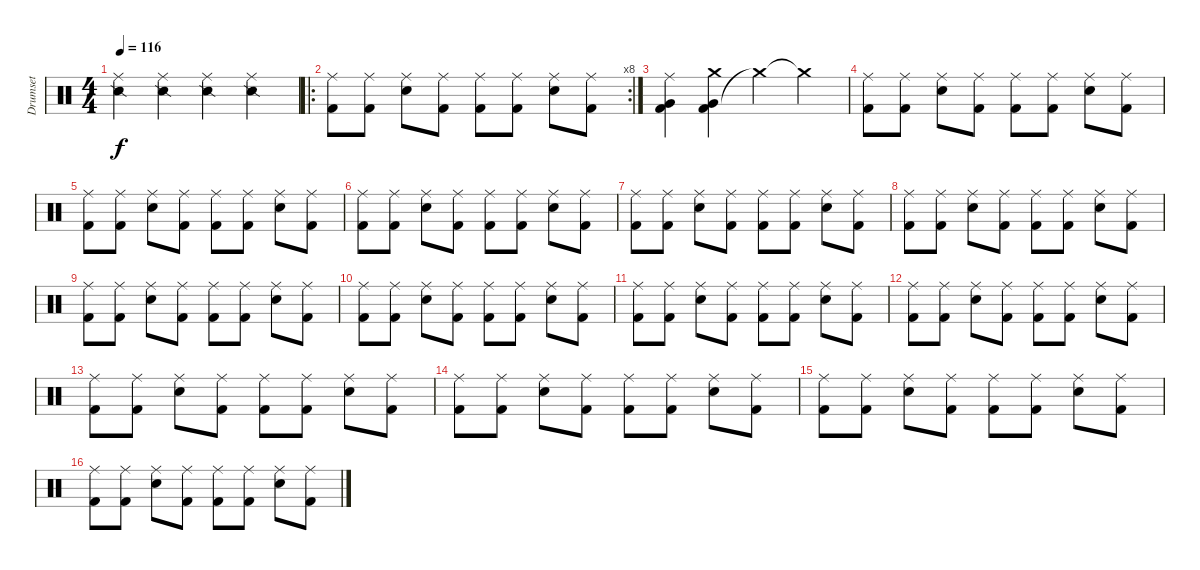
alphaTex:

\track ("Drumset" "Drumset") {instrument percussion}
\staff {score}
\articulation defaults
\ts (4 4)
\tempo 116
\clef neutral
\ks c
("Snare (side stick) 2" "Ride (middle)").4{dy f} ("Snare (side stick) 2" "Ride (middle)").4 ("Snare (side stick) 2" "Ride (middle)").4 ("Snare (side stick) 2" "Ride (middle)").4 |
\ro
\rc 8
("Kick (hit) 2" "Ride (middle)").8 ("Kick (hit) 2" "Ride (middle)").8 ("Electric Snare (hit)" "Ride (middle)").8 ("Kick (hit) 2" "Ride (middle)").8 ("Kick (hit) 2" "Ride (middle)").8 ("Kick (hit) 2" "Ride (middle)").8 ("Electric Snare (hit)" "Ride (middle)").8 ("Kick (hit) 2" "Ride (middle)").8 |
("Kick (hit) 2" "Very Low Tom (hit)" "Ride (middle)").4 ("Kick (hit) 2" "Very Low Tom (hit)" "Crash medium (hit)").4 "Crash medium (hit)"{t}.4 "Crash medium (hit)"{t}.4 |
("Kick (hit) 2" "Ride (middle)").8 ("Kick (hit) 2" "Ride (middle)").8 ("Electric Snare (hit)" "Ride (middle)").8 ("Kick (hit) 2" "Ride (middle)").8 ("Kick (hit) 2" "Ride (middle)").8 ("Kick (hit) 2" "Ride (middle)").8 ("Electric Snare (hit)" "Ride (middle)").8 ("Kick (hit) 2" "Ride (middle)").8 |
("Kick (hit) 2" "Ride (middle)").8 ("Kick (hit) 2" "Ride (middle)").8 ("Electric Snare (hit)" "Ride (middle)").8 ("Kick (hit) 2" "Ride (middle)").8 ("Kick (hit) 2" "Ride (middle)").8 ("Kick (hit) 2" "Ride (middle)").8 ("Electric Snare (hit)" "Ride (middle)").8 ("Kick (hit) 2" "Ride (middle)").8 |
("Kick (hit) 2" "Ride (middle)").8 ("Kick (hit) 2" "Ride (middle)").8 ("Electric Snare (hit)" "Ride (middle)").8 ("Kick (hit) 2" "Ride (middle)").8 ("Kick (hit) 2" "Ride (middle)").8 ("Kick (hit) 2" "Ride (middle)").8 ("Electric Snare (hit)" "Ride (middle)").8 ("Kick (hit) 2" "Ride (middle)").8 |
("Kick (hit) 2" "Ride (middle)").8 ("Kick (hit) 2" "Ride (middle)").8 ("Electric Snare (hit)" "Ride (middle)").8 ("Kick (hit) 2" "Ride (middle)").8 ("Kick (hit) 2" "Ride (middle)").8 ("Kick (hit) 2" "Ride (middle)").8 ("Electric Snare (hit)" "Ride (middle)").8 ("Kick (hit) 2" "Ride (middle)").8 |
("Kick (hit) 2" "Ride (middle)").8 ("Kick (hit) 2" "Ride (middle)").8 ("Electric Snare (hit)" "Ride (middle)").8 ("Kick (hit) 2" "Ride (middle)").8 ("Kick (hit) 2" "Ride (middle)").8 ("Kick (hit) 2" "Ride (middle)").8 ("Electric Snare (hit)" "Ride (middle)").8 ("Kick (hit) 2" "Ride (middle)").8 |
("Kick (hit) 2" "Ride (middle)").8 ("Kick (hit) 2" "Ride (middle)").8 ("Electric Snare (hit)" "Ride (middle)").8 ("Kick (hit) 2" "Ride (middle)").8 ("Kick (hit) 2" "Ride (middle)").8 ("Kick (hit) 2" "Ride (middle)").8 ("Electric Snare (hit)" "Ride (middle)").8 ("Kick (hit) 2" "Ride (middle)").8 |
("Kick (hit) 2" "Ride (middle)").8 ("Kick (hit) 2" "Ride (middle)").8 ("Electric Snare (hit)" "Ride (middle)").8 ("Kick (hit) 2" "Ride (middle)").8 ("Kick (hit) 2" "Ride (middle)").8 ("Kick (hit) 2" "Ride (middle)").8 ("Electric Snare (hit)" "Ride (middle)").8 ("Kick (hit) 2" "Ride (middle)").8 |
("Kick (hit) 2" "Ride (middle)").8 ("Kick (hit) 2" "Ride (middle)").8 ("Electric Snare (hit)" "Ride (middle)").8 ("Kick (hit) 2" "Ride (middle)").8 ("Kick (hit) 2" "Ride (middle)").8 ("Kick (hit) 2" "Ride (middle)").8 ("Electric Snare (hit)" "Ride (middle)").8 ("Kick (hit) 2" "Ride (middle)").8 |
("Kick (hit) 2" "Ride (middle)").8 ("Kick (hit) 2" "Ride (middle)").8 ("Electric Snare (hit)" "Ride (middle)").8 ("Kick (hit) 2" "Ride (middle)").8 ("Kick (hit) 2" "Ride (middle)").8 ("Kick (hit) 2" "Ride (middle)").8 ("Electric Snare (hit)" "Ride (middle)").8 ("Kick (hit) 2" "Ride (middle)").8 |
("Kick (hit) 2" "Ride (middle)").8 ("Kick (hit) 2" "Ride (middle)").8 ("Electric Snare (hit)" "Ride (middle)").8 ("Kick (hit) 2" "Ride (middle)").8 ("Kick (hit) 2" "Ride (middle)").8 ("Kick (hit) 2" "Ride (middle)").8 ("Electric Snare (hit)" "Ride (middle)").8 ("Kick (hit) 2" "Ride (middle)").8 |
("Kick (hit) 2" "Ride (middle)").8 ("Kick (hit) 2" "Ride (middle)").8 ("Electric Snare (hit)" "Ride (middle)").8 ("Kick (hit) 2" "Ride (middle)").8 ("Kick (hit) 2" "Ride (middle)").8 ("Kick (hit) 2" "Ride (middle)").8 ("Electric Snare (hit)" "Ride (middle)").8 ("Kick (hit) 2" "Ride (middle)").8 |
("Kick (hit) 2" "Ride (middle)").8 ("Kick (hit) 2" "Ride (middle)").8 ("Electric Snare (hit)" "Ride (middle)").8 ("Kick (hit) 2" "Ride (middle)").8 ("Kick (hit) 2" "Ride (middle)").8 ("Kick (hit) 2" "Ride (middle)").8 ("Electric Snare (hit)" "Ride (middle)").8 ("Kick (hit) 2" "Ride (middle)").8 |
("Kick (hit) 2" "Ride (middle)").8 ("Kick (hit) 2" "Ride (middle)").8 ("Electric Snare (hit)" "Ride (middle)").8 ("Kick (hit) 2" "Ride (middle)").8 ("Kick (hit) 2" "Ride (middle)").8 ("Kick (hit) 2" "Ride (middle)").8 ("Electric Snare (hit)" "Ride (middle)").8 ("Kick (hit) 2" "Ride (middle)").8
